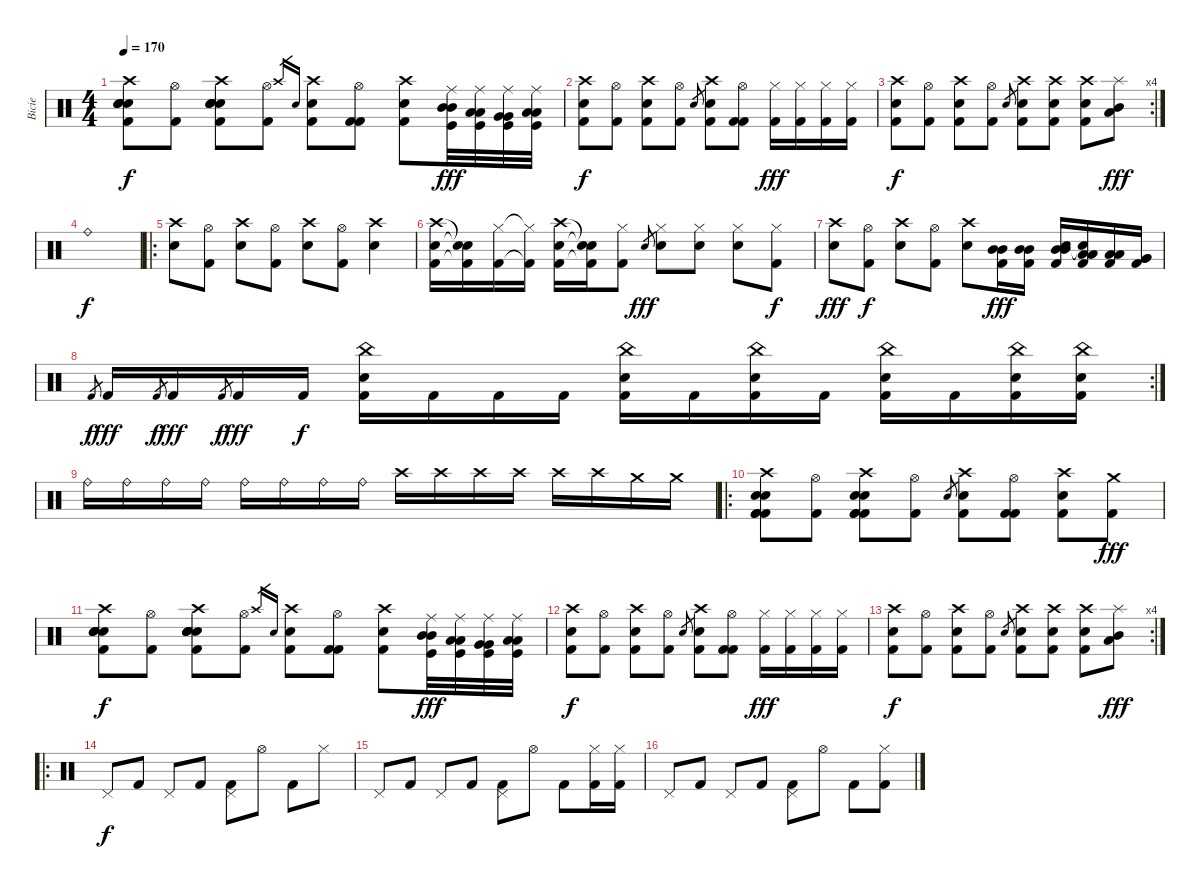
\track ("Bicie" "Bicie") {instrument percussion}
\staff {score}
\articulation defaults
\ts (4 4)
\tempo 170
\clef neutral
\ks c
("Crash high (hit)" "Electric Snare (hit)" "Electric Snare (hit)" "Electric Snare (hit)" "Kick (hit) 2" "Electric Snare (hit)").8{dy f} ("Hi-Hat (open)" "Kick (hit) 2").8 ("Crash high (hit)" "Electric Snare (hit)" "Electric Snare (hit)" "Electric Snare (hit)" "Kick (hit) 2" "Electric Snare (hit)").8 ("Hi-Hat (open)" "Kick (hit) 2").8 "Crash high (hit)".16{gr} "Electric Snare (hit)".16{gr} ("Crash high (hit)" "Kick (hit) 2" "Electric Snare (hit)").8 ("Hi-Hat (open)" "Kick (hit) 2" "Kick (hit) 2").8 ("Crash high (hit)" "Kick (hit) 2" "Electric Snare (hit)").8 ("Ride (middle)" "Mid Tom (hit)" "Kick (hit)" "Mid Tom (hit)").32{dy fff} ("Ride (middle)" "Low Tom (hit)" "Kick (hit)" "Low Tom (hit)").32 ("Ride (middle)" "Very Low Tom (hit)" "Kick (hit)" "Very Low Tom (hit)").32 ("Ride (middle)" "Low Floor Tom (hit)" "Kick (hit)" "Low Floor Tom (hit)").32 |
("Crash high (hit)" "Kick (hit) 2" "Electric Snare (hit)").8{dy f} ("Hi-Hat (open)" "Kick (hit) 2").8 ("Crash high (hit)" "Kick (hit) 2" "Electric Snare (hit)").8 ("Hi-Hat (open)" "Kick (hit) 2").8 "Electric Snare (hit)".8{gr} ("Crash high (hit)" "Kick (hit) 2" "Electric Snare (hit)").8 ("Hi-Hat (open)" "Kick (hit) 2" "Kick (hit) 2").8 ("Hi-Hat (closed)" "Kick (hit) 2").16{dy fff} ("Hi-Hat (closed)" "Kick (hit) 2").16 ("Hi-Hat (closed)" "Kick (hit) 2").16 ("Hi-Hat (closed)" "Kick (hit) 2").16 |
\rc 4
("Crash high (hit)" "Kick (hit) 2" "Electric Snare (hit)").8{dy f} ("Hi-Hat (open)" "Kick (hit) 2").8 ("Crash high (hit)" "Kick (hit) 2" "Electric Snare (hit)").8 ("Hi-Hat (open)" "Kick (hit) 2").8 "Electric Snare (hit)".8{gr} ("Crash high (hit)" "Kick (hit) 2" "Electric Snare (hit)").8 ("Crash high (hit)" "Kick (hit) 2" "Electric Snare (hit)").8 ("Crash high (hit)" "Kick (hit) 2" "Electric Snare (hit)").8 ("Splash (hit)" "Low Floor Tom (hit)" "Mid Tom (hit)").8{dy fff} |
"Ride (bell)".1{dy f} |
\ro
("Crash high (hit)" "Electric Snare (hit)").8 ("Hi-Hat (open)" "Kick (hit) 2").8 ("Crash high (hit)" "Electric Snare (hit)").8 ("Hi-Hat (open)" "Kick (hit) 2").8 ("Crash high (hit)" "Electric Snare (hit)").8 ("Hi-Hat (open)" "Kick (hit) 2").8 ("Crash high (hit)" "Electric Snare (hit)").4 |
("Crash high (hit)" "Kick (hit) 2" "Electric Snare (hit)").16 ("Snare (hit)"{t} "Kick (hit) 2"{t} "Electric Snare (hit)"{t}).16 ("Hi-Hat (closed)" "Kick (hit) 2").16 ("Hi-Hat (closed)"{t} "Kick (hit) 2"{t}).16 ("Crash high (hit)" "Kick (hit) 2" "Electric Snare (hit)").16 ("Snare (hit)"{t} "Kick (hit) 2"{t} "Electric Snare (hit)"{t}).16 ("Hi-Hat (closed)" "Kick (hit) 2").8 "Electric Snare (hit)".8{gr dy fff} ("Hi-Hat (closed)" "Electric Snare (hit)").8 ("Hi-Hat (closed)" "Electric Snare (hit)").8 ("Hi-Hat (closed)" "Electric Snare (hit)").8 ("Hi-Hat (closed)" "Kick (hit) 2").8{dy f} |
("Crash high (hit)" "Electric Snare (hit)").8{dy fff} ("Hi-Hat (open)" "Kick (hit) 2").8{dy f} ("Crash high (hit)" "Electric Snare (hit)").8 ("Hi-Hat (open)" "Kick (hit) 2").8 ("Crash high (hit)" "Electric Snare (hit)").8 ("Kick (hit) 2" "Mid Tom (hit)" "Mid Tom (hit)").16{dy fff} ("Kick (hit) 2" "Mid Tom (hit)" "Mid Tom (hit)").16 ("Kick (hit) 2" "Mid Tom (hit)" "Mid Tom (hit)" "Electric Snare (hit)").16 ("Kick (hit) 2" "Low Tom (hit)" "Low Tom (hit)" "Snare (hit)"{t}).16 ("Kick (hit) 2" "Low Tom (hit)" "Low Tom (hit)").16 ("Kick (hit) 2" "Very Low Tom (hit)" "Very Low Tom (hit)").16 |
\rc 2 "Kick (hit) 2".8{gr dy f} "Kick (hit) 2".16{dy fff} "Kick (hit) 2".8{gr dy f} "Kick (hit) 2".16{dy fff} "Kick (hit) 2".8{gr dy f} "Kick (hit) 2".16{dy fff} "Kick (hit) 2".16{dy f}
("China (hit)" "Electric Snare (hit)" "Kick (hit) 2").16 "Kick (hit) 2".16 "Kick (hit) 2".16 "Kick (hit) 2".16 ("China (hit)" "Electric Snare (hit)" "Kick (hit) 2").16 "Kick (hit) 2".16 ("China (hit)" "Electric Snare (hit)" "Kick (hit) 2").16 "Kick (hit) 2".16 ("China (hit)" "Electric Snare (hit)" "Kick (hit) 2").16 "Kick (hit) 2".16 ("China (hit)" "Electric Snare (hit)" "Kick (hit) 2").16 ("China (hit)" "Electric Snare (hit)" "Kick (hit) 2").16 |
"Ride (bell)".16 "Ride (bell)".16 "Ride (bell)".16 "Ride (bell)".16 "Ride (bell)".16 "Ride (bell)".16 "Ride (bell)".16 "Ride (bell)".16 "Crash high (hit)".16 "Crash high (hit)".16 "Crash high (hit)".16 "Crash high (hit)".16 "Crash high (hit)".16 "Crash high (hit)".16 "Crash medium (hit)".16 "Crash medium (hit)".16 |
\ro
("Crash high (hit)" "Electric Snare (hit)" "Kick (hit) 2" "Kick (hit) 2" "Kick (hit) 2" "Electric Snare (hit)").8 ("Hi-Hat (open)" "Kick (hit) 2").8 ("Crash high (hit)" "Electric Snare (hit)" "Kick (hit) 2" "Kick (hit) 2" "Kick (hit) 2" "Electric Snare (hit)").8 ("Hi-Hat (open)" "Kick (hit) 2").8 "Electric Snare (hit)".8{gr} ("Crash high (hit)" "Kick (hit) 2" "Electric Snare (hit)").8 ("Hi-Hat (open)" "Kick (hit) 2" "Kick (hit) 2").8 ("Crash high (hit)" "Kick (hit) 2" "Electric Snare (hit)").8 ("Crash medium (hit)" "Kick (hit) 2").8{dy fff} |
("Crash high (hit)" "Electric Snare (hit)" "Electric Snare (hit)" "Electric Snare (hit)" "Kick (hit) 2" "Electric Snare (hit)").8{dy f} ("Hi-Hat (open)" "Kick (hit) 2").8 ("Crash high (hit)" "Electric Snare (hit)" "Electric Snare (hit)" "Electric Snare (hit)" "Kick (hit) 2" "Electric Snare (hit)").8 ("Hi-Hat (open)" "Kick (hit) 2").8 "Crash high (hit)".16{gr} "Electric Snare (hit)".16{gr} ("Crash high (hit)" "Kick (hit) 2" "Electric Snare (hit)").8 ("Hi-Hat (open)" "Kick (hit) 2" "Kick (hit) 2").8 ("Crash high (hit)" "Kick (hit) 2" "Electric Snare (hit)").8 ("Ride (middle)" "Mid Tom (hit)" "Kick (hit)" "Mid Tom (hit)").32{dy fff} ("Ride (middle)" "Low Tom (hit)" "Kick (hit)" "Low Tom (hit)").32 ("Ride (middle)" "Very Low Tom (hit)" "Kick (hit)" "Very Low Tom (hit)").32 ("Ride (middle)" "Low Floor Tom (hit)" "Kick (hit)" "Low Floor Tom (hit)").32 |
("Crash high (hit)" "Kick (hit) 2" "Electric Snare (hit)").8{dy f} ("Hi-Hat (open)" "Kick (hit) 2").8 ("Crash high (hit)" "Kick (hit) 2" "Electric Snare (hit)").8 ("Hi-Hat (open)" "Kick (hit) 2").8 "Electric Snare (hit)".8{gr} ("Crash high (hit)" "Kick (hit) 2" "Electric Snare (hit)").8 ("Hi-Hat (open)" "Kick (hit) 2" "Kick (hit) 2").8 ("Hi-Hat (closed)" "Kick (hit) 2").16{dy fff} ("Hi-Hat (closed)" "Kick (hit) 2").16 ("Hi-Hat (closed)" "Kick (hit) 2").16 ("Hi-Hat (closed)" "Kick (hit) 2").16 |
\rc 4
("Crash high (hit)" "Kick (hit) 2" "Electric Snare (hit)").8{dy f} ("Hi-Hat (open)" "Kick (hit) 2").8 ("Crash high (hit)" "Kick (hit) 2" "Electric Snare (hit)").8 ("Hi-Hat (open)" "Kick (hit) 2").8 "Electric Snare (hit)".8{gr} ("Crash high (hit)" "Kick (hit) 2" "Electric Snare (hit)").8 ("Crash high (hit)" "Kick (hit) 2" "Electric Snare (hit)").8 ("Crash high (hit)" "Kick (hit) 2" "Electric Snare (hit)").8 ("Splash (hit)" "Low Floor Tom (hit)" "Mid Tom (hit)").8{dy fff} |
\ro "Pedal Hi-Hat (hit)".8{dy f} "Kick (hit) 2".8 "Pedal Hi-Hat (hit)".8 "Kick (hit) 2".8
("Pedal Hi-Hat (hit)" "Kick (hit) 2").8 "Hi-Hat (open)".8 "Kick (hit) 2".8 "Hi-Hat (closed)".8 |
"Pedal Hi-Hat (hit)".8 "Kick (hit) 2".8 "Pedal Hi-Hat (hit)".8 "Kick (hit) 2".8 ("Pedal Hi-Hat (hit)" "Kick (hit) 2").8 "Hi-Hat (open)".8 "Kick (hit) 2".8 ("Hi-Hat (closed)" "Kick (hit) 2").16 ("Hi-Hat (closed)" "Kick (hit) 2").16 |
"Pedal Hi-Hat (hit)".8 "Kick (hit) 2".8 "Pedal Hi-Hat (hit)".8 "Kick (hit) 2".8 ("Pedal Hi-Hat (hit)" "Kick (hit) 2").8 "Hi-Hat (open)".8 "Kick (hit) 2".8 ("Hi-Hat (closed)" "Kick (hit) 2").8
